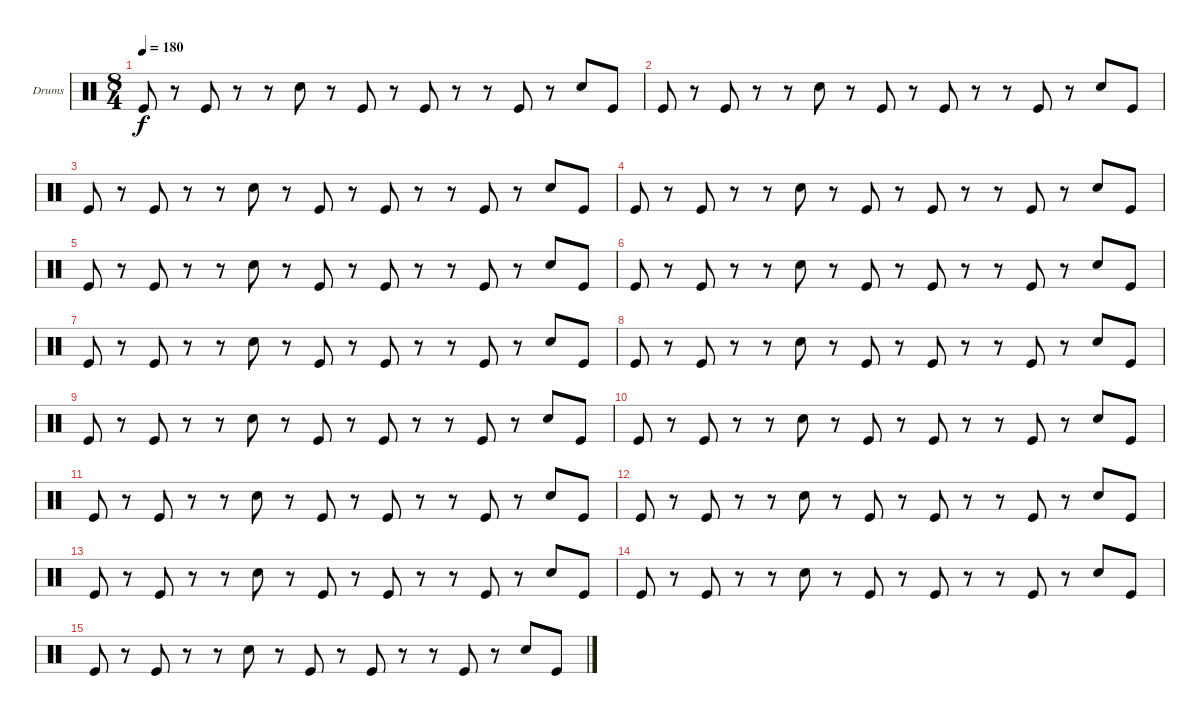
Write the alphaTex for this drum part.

\defaultSystemsLayout 4
\bracketExtendMode groupsimilarinstruments
\firstSystemTrackNameOrientation horizontal
\otherSystemsTrackNameOrientation horizontal
\track ("Drumkit" "Drums") {instrument percussion}
\staff {score}
\articulation defaults
\ts (8 4)
\tempo 180
\clef neutral
\ks c "Kick (hit)".8{dy f}
r.8 "Kick (hit)".8 r.8 r.8 "Snare (hit) 2".8 r.8 "Kick (hit)".8 r.8 "Kick (hit)".8 r.8 r.8 "Kick (hit)".8 r.8 "Snare (hit) 2".8 "Kick (hit)".8 |
"Kick (hit)".8 r.8 "Kick (hit)".8 r.8 r.8 "Snare (hit) 2".8 r.8 "Kick (hit)".8 r.8 "Kick (hit)".8 r.8 r.8 "Kick (hit)".8 r.8 "Snare (hit) 2".8 "Kick (hit)".8 |
"Kick (hit)".8 r.8 "Kick (hit)".8 r.8 r.8 "Snare (hit) 2".8 r.8 "Kick (hit)".8 r.8 "Kick (hit)".8 r.8 r.8 "Kick (hit)".8 r.8 "Snare (hit) 2".8 "Kick (hit)".8 |
"Kick (hit)".8 r.8 "Kick (hit)".8 r.8 r.8 "Snare (hit) 2".8 r.8 "Kick (hit)".8 r.8 "Kick (hit)".8 r.8 r.8 "Kick (hit)".8 r.8 "Snare (hit) 2".8 "Kick (hit)".8 |
"Kick (hit)".8 r.8 "Kick (hit)".8 r.8 r.8 "Snare (hit) 2".8 r.8 "Kick (hit)".8 r.8 "Kick (hit)".8 r.8 r.8 "Kick (hit)".8 r.8 "Snare (hit) 2".8 "Kick (hit)".8 |
"Kick (hit)".8 r.8 "Kick (hit)".8 r.8 r.8 "Snare (hit) 2".8 r.8 "Kick (hit)".8 r.8 "Kick (hit)".8 r.8 r.8 "Kick (hit)".8 r.8 "Snare (hit) 2".8 "Kick (hit)".8 |
"Kick (hit)".8 r.8 "Kick (hit)".8 r.8 r.8 "Snare (hit) 2".8 r.8 "Kick (hit)".8 r.8 "Kick (hit)".8 r.8 r.8 "Kick (hit)".8 r.8 "Snare (hit) 2".8 "Kick (hit)".8 |
"Kick (hit)".8 r.8 "Kick (hit)".8 r.8 r.8 "Snare (hit) 2".8 r.8 "Kick (hit)".8 r.8 "Kick (hit)".8 r.8 r.8 "Kick (hit)".8 r.8 "Snare (hit) 2".8 "Kick (hit)".8 |
"Kick (hit)".8 r.8 "Kick (hit)".8 r.8 r.8 "Snare (hit) 2".8 r.8 "Kick (hit)".8 r.8 "Kick (hit)".8 r.8 r.8 "Kick (hit)".8 r.8 "Snare (hit) 2".8 "Kick (hit)".8 |
"Kick (hit)".8 r.8 "Kick (hit)".8 r.8 r.8 "Snare (hit) 2".8 r.8 "Kick (hit)".8 r.8 "Kick (hit)".8 r.8 r.8 "Kick (hit)".8 r.8 "Snare (hit) 2".8 "Kick (hit)".8 |
"Kick (hit)".8 r.8 "Kick (hit)".8 r.8 r.8 "Snare (hit) 2".8 r.8 "Kick (hit)".8 r.8 "Kick (hit)".8 r.8 r.8 "Kick (hit)".8 r.8 "Snare (hit) 2".8 "Kick (hit)".8 |
"Kick (hit)".8 r.8 "Kick (hit)".8 r.8 r.8 "Snare (hit) 2".8 r.8 "Kick (hit)".8 r.8 "Kick (hit)".8 r.8 r.8 "Kick (hit)".8 r.8 "Snare (hit) 2".8 "Kick (hit)".8 |
"Kick (hit)".8 r.8 "Kick (hit)".8 r.8 r.8 "Snare (hit) 2".8 r.8 "Kick (hit)".8 r.8 "Kick (hit)".8 r.8 r.8 "Kick (hit)".8 r.8 "Snare (hit) 2".8 "Kick (hit)".8 |
"Kick (hit)".8 r.8 "Kick (hit)".8 r.8 r.8 "Snare (hit) 2".8 r.8 "Kick (hit)".8 r.8 "Kick (hit)".8 r.8 r.8 "Kick (hit)".8 r.8 "Snare (hit) 2".8 "Kick (hit)".8 |
"Kick (hit)".8 r.8 "Kick (hit)".8 r.8 r.8 "Snare (hit) 2".8 r.8 "Kick (hit)".8 r.8 "Kick (hit)".8 r.8 r.8 "Kick (hit)".8 r.8 "Snare (hit) 2".8 "Kick (hit)".8
